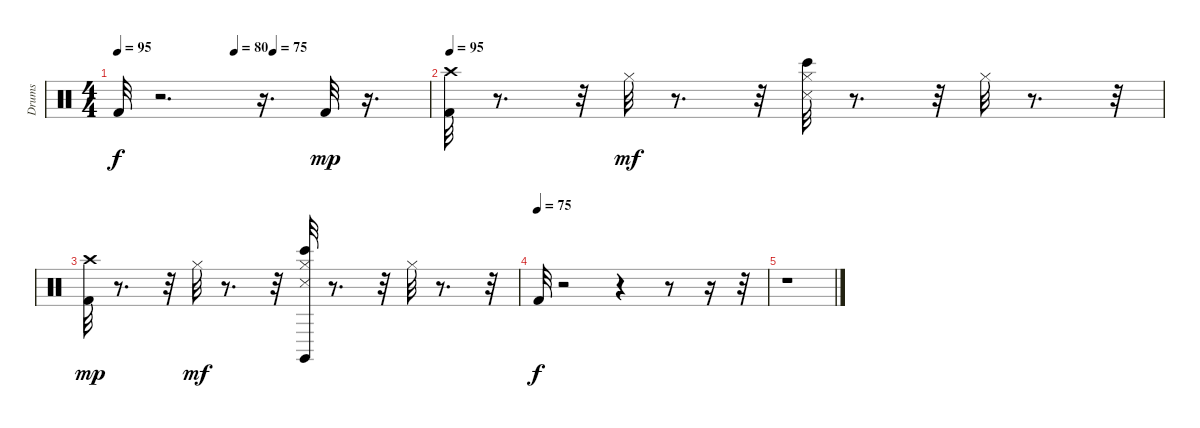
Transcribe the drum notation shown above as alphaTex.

\track ("Drums" "Drums") {instrument percussion}
\staff {score}
\articulation defaults
\ts (4 4)
\tempo 95
\tempo (80 0.375)
\tempo (75 0.5)
\clef neutral
\ks c "Kick (hit) 2".32{dy f}
r.2{d} r.16{d} "Kick (hit) 2".32{dy mp} r.16{d} |
\tempo 95
("Crash high (hit)" "Kick (hit) 2").32 r.8{d} r.32 "Hi-Hat (closed)".32{dy mf} r.8{d} r.32 ("Bongo High (hit)" "Snare (side stick) 3" "Hi-Hat (closed)").32 r.8{d} r.32 "Hi-Hat (closed)".32 r.8{d} r.32 |
("Crash high (hit)" "Kick (hit) 2").32{dy mp} r.8{d} r.32 "Hi-Hat (closed)".32{dy mf} r.8{d} r.32 ("Claves (hit)" "Bongo High (hit)" "Snare (side stick) 3" "Hi-Hat (closed)").32 r.8{d} r.32 "Hi-Hat (closed)".32 r.8{d} r.32 |
\tempo (75)
"Kick (hit) 2".32{dy f} r.2 r.4 r.8 r.16 r.32 |
r.1
